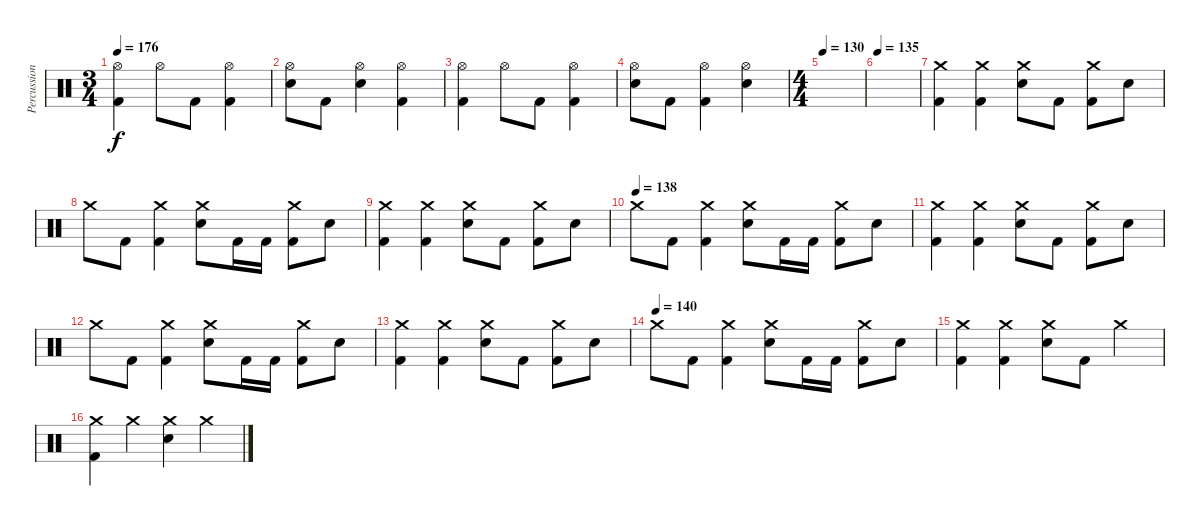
\track ("Percussion" "Percussion") {instrument percussion}
\staff {score}
\articulation defaults
\ts (3 4)
\tempo 176
\clef neutral
\ks c
("Hi-Hat (open)" "Kick (hit) 2").4{dy f} "Hi-Hat (open)".8 "Kick (hit) 2".8 ("Hi-Hat (open)" "Kick (hit) 2").4 |
("Hi-Hat (open)" "Electric Snare (hit)").8 "Kick (hit) 2".8 ("Hi-Hat (open)" "Electric Snare (hit)").4 ("Hi-Hat (open)" "Kick (hit) 2").4 |
("Hi-Hat (open)" "Kick (hit) 2").4 "Hi-Hat (open)".8 "Kick (hit) 2".8 ("Hi-Hat (open)" "Kick (hit) 2").4 |
("Hi-Hat (open)" "Electric Snare (hit)").8 "Kick (hit) 2".8 ("Hi-Hat (open)" "Kick (hit) 2").4 ("Hi-Hat (open)" "Electric Snare (hit)").4 |
\ts (4 4)
\tempo 130
|
\tempo 135
|
("Crash medium (hit)" "Kick (hit) 2").4 ("Crash medium (hit)" "Kick (hit) 2").4 ("Crash medium (hit)" "Electric Snare (hit)").8 "Kick (hit) 2".8 ("Crash medium (hit)" "Kick (hit) 2").8 "Electric Snare (hit)".8 |
"Crash medium (hit)".8 "Kick (hit) 2".8 ("Crash medium (hit)" "Kick (hit) 2").4 ("Crash medium (hit)" "Electric Snare (hit)").8 "Kick (hit) 2".16 "Kick (hit) 2".16 ("Crash medium (hit)" "Kick (hit) 2").8 "Electric Snare (hit)".8 |
("Crash medium (hit)" "Kick (hit) 2").4 ("Crash medium (hit)" "Kick (hit) 2").4 ("Crash medium (hit)" "Electric Snare (hit)").8 "Kick (hit) 2".8 ("Crash medium (hit)" "Kick (hit) 2").8 "Electric Snare (hit)".8 |
\tempo (138)
"Crash medium (hit)".8 "Kick (hit) 2".8 ("Crash medium (hit)" "Kick (hit) 2").4 ("Crash medium (hit)" "Electric Snare (hit)").8 "Kick (hit) 2".16 "Kick (hit) 2".16 ("Crash medium (hit)" "Kick (hit) 2").8 "Electric Snare (hit)".8 |
("Crash medium (hit)" "Kick (hit) 2").4 ("Crash medium (hit)" "Kick (hit) 2").4 ("Crash medium (hit)" "Electric Snare (hit)").8 "Kick (hit) 2".8 ("Crash medium (hit)" "Kick (hit) 2").8 "Electric Snare (hit)".8 |
"Crash medium (hit)".8 "Kick (hit) 2".8 ("Crash medium (hit)" "Kick (hit) 2").4 ("Crash medium (hit)" "Electric Snare (hit)").8 "Kick (hit) 2".16 "Kick (hit) 2".16 ("Crash medium (hit)" "Kick (hit) 2").8 "Electric Snare (hit)".8 |
("Crash medium (hit)" "Kick (hit) 2").4 ("Crash medium (hit)" "Kick (hit) 2").4 ("Crash medium (hit)" "Electric Snare (hit)").8 "Kick (hit) 2".8 ("Crash medium (hit)" "Kick (hit) 2").8 "Electric Snare (hit)".8 |
\tempo (140)
"Crash medium (hit)".8 "Kick (hit) 2".8 ("Crash medium (hit)" "Kick (hit) 2").4 ("Crash medium (hit)" "Electric Snare (hit)").8 "Kick (hit) 2".16 "Kick (hit) 2".16 ("Crash medium (hit)" "Kick (hit) 2").8 "Electric Snare (hit)".8 |
("Crash medium (hit)" "Kick (hit) 2").4 ("Crash medium (hit)" "Kick (hit) 2").4 ("Crash medium (hit)" "Electric Snare (hit)").8 "Kick (hit) 2".8 "Crash medium (hit)".4 |
("Crash medium (hit)" "Kick (hit) 2").4 "Crash medium (hit)".4 ("Crash medium (hit)" "Electric Snare (hit)").4 "Crash medium (hit)".4
